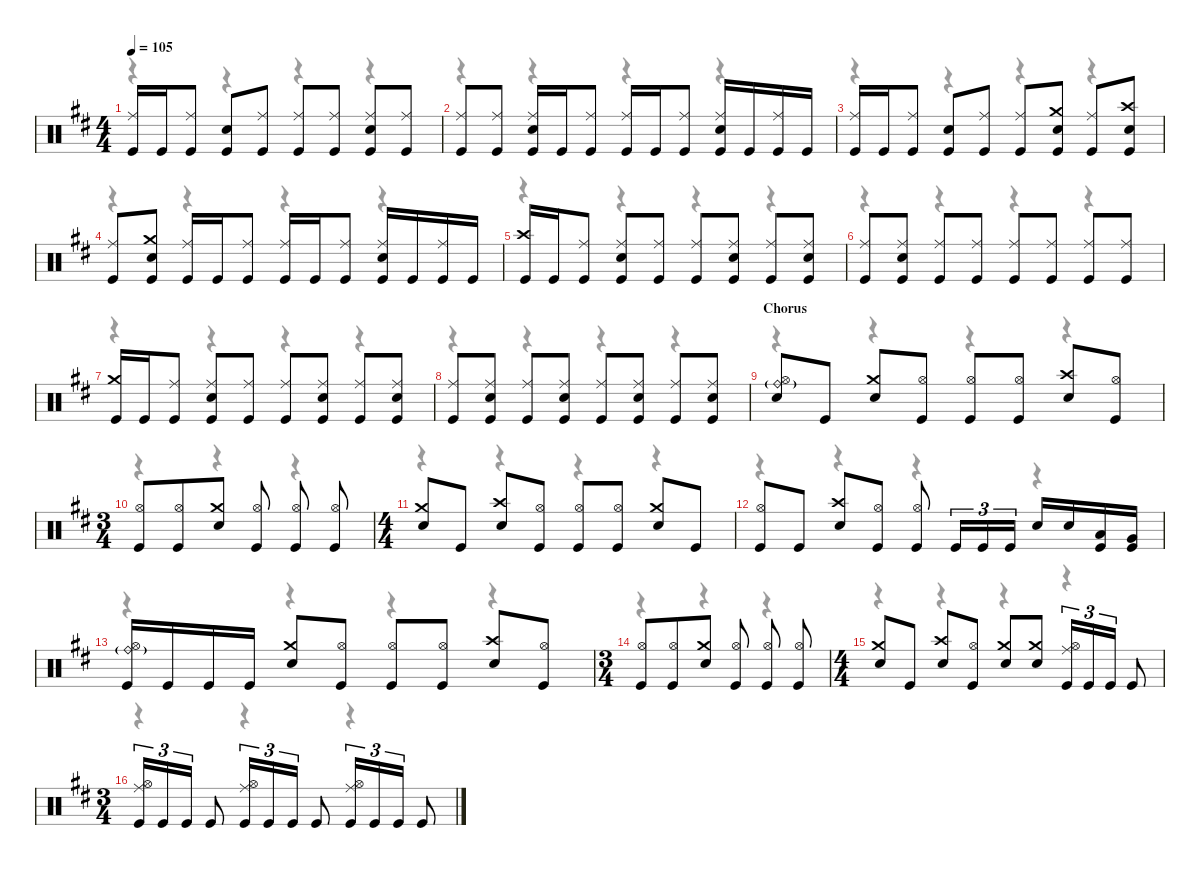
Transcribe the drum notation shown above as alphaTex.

\defaultSystemsLayout 4
\hideDynamics
\bracketExtendMode nobrackets
\singleTrackTrackNamePolicy hidden
\multiTrackTrackNamePolicy hidden
\firstSystemTrackNameMode fullname
\firstSystemTrackNameOrientation horizontal
\otherSystemsTrackNameOrientation horizontal
\track ("Drums" "drm.") {instrument percussion}
\staff {score}
\articulation defaults
\voice
\ts (4 4)
\tempo 105
\clef neutral
\ks bminor
("Kick (hit)"{acc forcenatural} "Ride (middle)"{acc forcenatural}).16{dy f beam Up} "Kick (hit)"{acc forcenatural}.16{beam Up} ("Kick (hit)"{acc forcenatural} "Ride (middle)"{acc forcenatural}).8{beam Up} ("Kick (hit)"{acc forcenatural} "Snare (hit) 2"{acc forcenatural}).8{beam Up} ("Kick (hit)"{acc forcenatural} "Ride (middle)"{acc forcenatural}).8{beam Up} ("Kick (hit)"{acc forcenatural} "Ride (middle)"{acc forcenatural}).8{beam Up} ("Kick (hit)"{acc forcenatural} "Ride (middle)"{acc forcenatural}).8{beam Up} ("Kick (hit)"{acc forcenatural} "Ride (middle)"{acc forcenatural} "Snare (hit) 2"{acc forcenatural}).8{beam Up} ("Kick (hit)"{acc forcenatural} "Ride (middle)"{acc forcenatural}).8{beam Up} |
("Ride (middle)"{acc forcenatural} "Kick (hit)"{acc forcenatural}).8{beam Up} ("Ride (middle)"{acc forcenatural} "Kick (hit)"{acc forcenatural}).8{beam Up} ("Ride (middle)"{acc forcenatural} "Snare (hit) 2"{acc forcenatural} "Kick (hit)"{acc forcenatural}).16{beam Up} "Kick (hit)"{acc forcenatural}.16{beam Up} ("Ride (middle)"{acc forcenatural} "Kick (hit)"{acc forcenatural}).8{beam Up} ("Ride (middle)"{acc forcenatural} "Kick (hit)"{acc forcenatural}).16{beam Up} "Kick (hit)"{acc forcenatural}.16{beam Up} ("Ride (middle)"{acc forcenatural} "Kick (hit)"{acc forcenatural}).8{beam Up} ("Snare (hit) 2"{acc forcenatural} "Kick (hit)"{acc forcenatural} "Ride (middle)"{acc forcenatural}).16{beam Up} "Kick (hit)"{acc forcenatural}.16{beam Up} ("Kick (hit)"{acc forcenatural} "Ride (middle)"{acc forcenatural}).16{beam Up} "Kick (hit)"{acc forcenatural}.16{beam Up} |
("Kick (hit)"{acc forcenatural} "Ride (middle)"{acc forcenatural}).16{beam Up} "Kick (hit)"{acc forcenatural}.16{beam Up} ("Kick (hit)"{acc forcenatural} "Ride (middle)"{acc forcenatural}).8{beam Up} ("Kick (hit)"{acc forcenatural} "Snare (hit) 2"{acc forcenatural}).8{beam Up} ("Kick (hit)"{acc forcenatural} "Ride (middle)"{acc forcenatural}).8{beam Up} ("Kick (hit)"{acc forcenatural} "Ride (middle)"{acc forcenatural}).8{beam Up} ("Kick (hit)"{acc forcenatural} "Snare (hit) 2"{acc forcenatural} "Crash medium (hit)"{acc forcenatural}).8{beam Up} ("Kick (hit)"{acc forcenatural} "Ride (middle)"{acc forcenatural}).8{beam Up} ("Kick (hit)"{acc forcenatural} "Snare (hit) 2"{acc forcenatural} "Crash high (hit)"{acc forcenatural}).8{beam Up} |
("Ride (middle)"{acc forcenatural} "Kick (hit)"{acc forcenatural}).8{beam Up} ("Kick (hit)"{acc forcenatural} "Snare (hit) 2"{acc forcenatural} "Crash medium (hit)"{acc forcenatural}).8{beam Up} ("Ride (middle)"{acc forcenatural} "Kick (hit)"{acc forcenatural}).16{beam Up} "Kick (hit)"{acc forcenatural}.16{beam Up} ("Ride (middle)"{acc forcenatural} "Kick (hit)"{acc forcenatural}).8{beam Up} ("Ride (middle)"{acc forcenatural} "Kick (hit)"{acc forcenatural}).16{beam Up} "Kick (hit)"{acc forcenatural}.16{beam Up} ("Ride (middle)"{acc forcenatural} "Kick (hit)"{acc forcenatural}).8{beam Up} ("Snare (hit) 2"{acc forcenatural} "Kick (hit)"{acc forcenatural} "Ride (middle)"{acc forcenatural}).16{beam Up} "Kick (hit)"{acc forcenatural}.16{beam Up} ("Kick (hit)"{acc forcenatural} "Ride (middle)"{acc forcenatural}).16{beam Up} "Kick (hit)"{acc forcenatural}.16{beam Up} |
("Kick (hit)"{acc forcenatural} "Crash high (hit)"{acc forcenatural}).16{beam Up} "Kick (hit)"{acc forcenatural}.16{beam Up} ("Kick (hit)"{acc forcenatural} "Ride (middle)"{acc forcenatural}).8{beam Up} ("Kick (hit)"{acc forcenatural} "Snare (hit) 2"{acc forcenatural} "Ride (middle)"{acc forcenatural}).8{beam Up} ("Kick (hit)"{acc forcenatural} "Ride (middle)"{acc forcenatural}).8{beam Up} ("Kick (hit)"{acc forcenatural} "Ride (middle)"{acc forcenatural}).8{beam Up} ("Kick (hit)"{acc forcenatural} "Snare (hit) 2"{acc forcenatural} "Ride (middle)"{acc forcenatural}).8{beam Up} ("Kick (hit)"{acc forcenatural} "Ride (middle)"{acc forcenatural}).8{beam Up} ("Kick (hit)"{acc forcenatural} "Snare (hit) 2"{acc forcenatural} "Ride (middle)"{acc forcenatural}).8{beam Up} |
("Kick (hit)"{acc forcenatural} "Ride (middle)"{acc forcenatural}).8{beam Up} ("Kick (hit)"{acc forcenatural} "Snare (hit) 2"{acc forcenatural} "Ride (middle)"{acc forcenatural}).8{beam Up} ("Kick (hit)"{acc forcenatural} "Ride (middle)"{acc forcenatural}).8{beam Up} ("Kick (hit)"{acc forcenatural} "Ride (middle)"{acc forcenatural}).8{beam Up} ("Kick (hit)"{acc forcenatural} "Ride (middle)"{acc forcenatural}).8{beam Up} ("Kick (hit)"{acc forcenatural} "Ride (middle)"{acc forcenatural}).8{beam Up} ("Kick (hit)"{acc forcenatural} "Ride (middle)"{acc forcenatural}).8{beam Up} ("Kick (hit)"{acc forcenatural} "Ride (middle)"{acc forcenatural}).8{beam Up} |
("Kick (hit)"{acc forcenatural} "Crash medium (hit)"{acc forcenatural}).16{beam Up} "Kick (hit)"{acc forcenatural}.16{beam Up} ("Kick (hit)"{acc forcenatural} "Ride (middle)"{acc forcenatural}).8{beam Up} ("Kick (hit)"{acc forcenatural} "Snare (hit) 2"{acc forcenatural} "Ride (middle)"{acc forcenatural}).8{beam Up} ("Kick (hit)"{acc forcenatural} "Ride (middle)"{acc forcenatural}).8{beam Up} ("Kick (hit)"{acc forcenatural} "Ride (middle)"{acc forcenatural}).8{beam Up} ("Kick (hit)"{acc forcenatural} "Snare (hit) 2"{acc forcenatural} "Ride (middle)"{acc forcenatural}).8{beam Up} ("Kick (hit)"{acc forcenatural} "Ride (middle)"{acc forcenatural}).8{beam Up} ("Kick (hit)"{acc forcenatural} "Snare (hit) 2"{acc forcenatural} "Ride (middle)"{acc forcenatural}).8{beam Up} |
("Kick (hit)"{acc forcenatural} "Ride (middle)"{acc forcenatural}).8{beam Up} ("Kick (hit)"{acc forcenatural} "Snare (hit) 2"{acc forcenatural} "Ride (middle)"{acc forcenatural}).8{beam Up} ("Kick (hit)"{acc forcenatural} "Ride (middle)"{acc forcenatural}).8{beam Up} ("Kick (hit)"{acc forcenatural} "Ride (middle)"{acc forcenatural} "Snare (hit) 2"{acc forcenatural}).8{beam Up} ("Kick (hit)"{acc forcenatural} "Ride (middle)"{acc forcenatural}).8{beam Up} ("Kick (hit)"{acc forcenatural} "Ride (middle)"{acc forcenatural} "Snare (hit) 2"{acc forcenatural}).8{beam Up} ("Kick (hit)"{acc forcenatural} "Ride (middle)"{acc forcenatural}).8{beam Up} ("Kick (hit)"{acc forcenatural} "Ride (middle)"{acc forcenatural} "Snare (hit) 2"{acc forcenatural}).8{beam Up} |
\section ("" "Chorus")
("Ride (bell)"{g acc forcenatural} "Hi-Hat (open)"{acc forcenatural} "Snare (hit) 2"{acc forcenatural}).8{dy mp beam Up} "Kick (hit)"{acc forcenatural}.8{dy f beam Up} ("Crash medium (hit)"{acc forcenatural} "Snare (hit) 2"{acc forcenatural}).8{dy mp beam Up} ("Hi-Hat (open)"{acc forcenatural} "Kick (hit)"{acc forcenatural}).8{dy pp beam Up} ("Hi-Hat (open)"{acc forcenatural} "Kick (hit)"{acc forcenatural}).8{dy mp beam Up} ("Hi-Hat (open)"{acc forcenatural} "Kick (hit)"{acc forcenatural}).8{dy pp beam Up} ("Crash high (hit)"{acc forcenatural} "Snare (hit) 2"{acc forcenatural}).8{dy mp beam Up} ("Hi-Hat (open)"{acc forcenatural} "Kick (hit)"{acc forcenatural}).8{dy pp beam Up} |
\ts (3 4)
\beaming (8 3 1 1 1)
("Hi-Hat (open)"{acc forcenatural} "Kick (hit)"{acc forcenatural}).8{dy mp beam Up} ("Hi-Hat (open)"{acc forcenatural} "Kick (hit)"{acc forcenatural}).8{dy pp beam Up} ("Crash medium (hit)"{acc forcenatural} "Snare (hit) 2"{acc forcenatural}).8{dy mp beam Up} ("Hi-Hat (open)"{acc forcenatural} "Kick (hit)"{acc forcenatural}).8{dy pp beam Up} ("Hi-Hat (open)"{acc forcenatural} "Kick (hit)"{acc forcenatural}).8{dy mp beam Up} ("Hi-Hat (open)"{acc forcenatural} "Kick (hit)"{acc forcenatural}).8{dy pp beam Up} |
\ts (4 4)
\beaming (8 2 2 2 2)
("Crash medium (hit)"{acc forcenatural} "Snare (hit) 2"{acc forcenatural}).8{dy mp beam Up} "Kick (hit)"{acc forcenatural}.8{dy f beam Up} ("Crash high (hit)"{acc forcenatural} "Snare (hit) 2"{acc forcenatural}).8{dy mp beam Up} ("Hi-Hat (open)"{acc forcenatural} "Kick (hit)"{acc forcenatural}).8{dy pp beam Up} ("Hi-Hat (open)"{acc forcenatural} "Kick (hit)"{acc forcenatural}).8{dy mp beam Up} ("Hi-Hat (open)"{acc forcenatural} "Kick (hit)"{acc forcenatural}).8{dy pp beam Up} ("Crash medium (hit)"{acc forcenatural} "Snare (hit) 2"{acc forcenatural}).8{dy mp beam Up} "Kick (hit)"{acc forcenatural}.8{dy f beam Up} |
("Hi-Hat (open)"{acc forcenatural} "Kick (hit)"{acc forcenatural}).8{dy mp beam Up} "Kick (hit)"{acc forcenatural}.8{dy f beam Up} ("Crash high (hit)"{acc forcenatural} "Snare (hit) 2"{acc forcenatural}).8{dy mp beam Up} ("Hi-Hat (open)"{acc forcenatural} "Kick (hit)"{acc forcenatural}).8{dy pp beam Up} ("Hi-Hat (open)"{acc forcenatural} "Kick (hit)"{acc forcenatural}).8{dy mp beam Up} "Kick (hit)"{acc forcenatural}.16{tu (3 2) dy f beam Up} "Kick (hit)"{acc forcenatural}.16{tu (3 2) beam Up} "Kick (hit)"{acc forcenatural}.16{tu (3 2) beam Up} "Snare (hit) 2"{acc forcenatural}.16{beam Up} "Snare (hit) 2"{acc forcenatural}.16{beam Up} ("Low Tom (hit)"{acc forcenatural} "Kick (hit)"{acc forcenatural}).16{dy mp beam Up} ("Very Low Tom (hit)"{acc forcenatural} "Kick (hit)"{acc forcenatural}).16{beam Up} |
("Ride (bell)"{g acc forcenatural} "Hi-Hat (open)"{acc forcenatural} "Kick (hit)"{acc forcenatural}).16{beam Up} "Kick (hit)"{acc forcenatural}.16{dy f beam Up} "Kick (hit)"{acc forcenatural}.16{beam Up} "Kick (hit)"{acc forcenatural}.16{beam Up} ("Crash medium (hit)"{acc forcenatural} "Snare (hit) 2"{acc forcenatural}).8{dy mp beam Up} ("Hi-Hat (open)"{acc forcenatural} "Kick (hit)"{acc forcenatural}).8{dy pp beam Up} ("Hi-Hat (open)"{acc forcenatural} "Kick (hit)"{acc forcenatural}).8{dy mp beam Up} ("Hi-Hat (open)"{acc forcenatural} "Kick (hit)"{acc forcenatural}).8{dy pp beam Up} ("Crash high (hit)"{acc forcenatural} "Snare (hit) 2"{acc forcenatural}).8{dy mp beam Up} ("Hi-Hat (open)"{acc forcenatural} "Kick (hit)"{acc forcenatural}).8{dy pp beam Up} |
\ts (3 4)
\beaming (8 3 1 1 1)
("Hi-Hat (open)"{acc forcenatural} "Kick (hit)"{acc forcenatural}).8{dy mp beam Up} ("Hi-Hat (open)"{acc forcenatural} "Kick (hit)"{acc forcenatural}).8{dy pp beam Up} ("Crash medium (hit)"{acc forcenatural} "Snare (hit) 2"{acc forcenatural}).8{dy mp beam Up} ("Hi-Hat (open)"{acc forcenatural} "Kick (hit)"{acc forcenatural}).8{dy pp beam Up} ("Hi-Hat (open)"{acc forcenatural} "Kick (hit)"{acc forcenatural}).8{dy mp beam Up} ("Hi-Hat (open)"{acc forcenatural} "Kick (hit)"{acc forcenatural}).8{dy pp beam Up} |
\ts (4 4)
\beaming (8 2 2 2 2)
("Crash medium (hit)"{acc forcenatural} "Snare (hit) 2"{acc forcenatural}).8{dy mp beam Up} "Kick (hit)"{acc forcenatural}.8{dy f beam Up} ("Crash high (hit)"{acc forcenatural} "Snare (hit) 2"{acc forcenatural}).8{dy mp beam Up} ("Hi-Hat (open)"{acc forcenatural} "Kick (hit)"{acc forcenatural}).8{dy pp beam Up} ("Crash medium (hit)"{acc forcenatural} "Snare (hit) 2"{acc forcenatural}).8{dy mp beam Up} ("Crash medium (hit)"{acc forcenatural} "Snare (hit) 2"{acc forcenatural}).8{beam Up} ("Ride (middle)"{acc forcenatural} "Hi-Hat (open)"{acc forcenatural} "Kick (hit)"{acc forcenatural}).16{tu (3 2) dy mf beam Up} "Kick (hit)"{acc forcenatural}.16{tu (3 2) dy f beam Up} "Kick (hit)"{acc forcenatural}.16{tu (3 2) beam Up} "Kick (hit)"{acc forcenatural}.8{beam Up} |
\ts (3 4)
\beaming (8 3 1 1 1)
("Ride (middle)"{acc forcenatural} "Hi-Hat (open)"{acc forcenatural} "Kick (hit)"{acc forcenatural}).16{tu (3 2) dy mf beam Up} "Kick (hit)"{acc forcenatural}.16{tu (3 2) dy f beam Up} "Kick (hit)"{acc forcenatural}.16{tu (3 2) beam Up} "Kick (hit)"{acc forcenatural}.8{beam Up} ("Ride (middle)"{acc forcenatural} "Hi-Hat (open)"{acc forcenatural} "Kick (hit)"{acc forcenatural}).16{tu (3 2) dy mf beam Up} "Kick (hit)"{acc forcenatural}.16{tu (3 2) dy f beam Up} "Kick (hit)"{acc forcenatural}.16{tu (3 2) beam Up} "Kick (hit)"{acc forcenatural}.8{beam Up} ("Ride (middle)"{acc forcenatural} "Hi-Hat (open)"{acc forcenatural} "Kick (hit)"{acc forcenatural}).16{tu (3 2) dy mf beam Up} "Kick (hit)"{acc forcenatural}.16{tu (3 2) dy f beam Up} "Kick (hit)"{acc forcenatural}.16{tu (3 2) beam Up} "Kick (hit)"{acc forcenatural}.8{beam Up}
\voice
\clef neutral
\ottava regular
\simile none
\ks bminor
r.4{dy mf beam Down} r.4{beam Down} r.4{beam Down} r.4{beam Down} |
r.4{beam Down} r.4{beam Down} r.4{beam Down} r.4{beam Down} |
r.4{beam Down} r.4{beam Down} r.4{beam Down} r.4{beam Down} |
r.4{beam Down} r.4{beam Down} r.4{beam Down} r.4{beam Down} |
r.4{beam Down} r.4{beam Down} r.4{beam Down} r.4{beam Down} |
r.4{beam Down} r.4{beam Down} r.4{beam Down} r.4{beam Down} |
r.4{beam Down} r.4{beam Down} r.4{beam Down} r.4{beam Down} |
r.4{beam Down} r.4{beam Down} r.4{beam Down} r.4{beam Down} |
r.4{beam Down} r.4{beam Down} r.4{beam Down} r.4{beam Down} |
r.4{beam Down} r.4{beam Down} r.4{beam Down} |
r.4{beam Down} r.4{beam Down} r.4{beam Down} r.4{beam Down} |
r.4{beam Down} r.4{beam Down} r.4{beam Down} r.4{beam Down} |
r.4{beam Down} r.4{beam Down} r.4{beam Down} r.4{beam Down} |
r.4{beam Down} r.4{beam Down} r.4{beam Down} |
r.4{beam Down} r.4{beam Down} r.4{beam Down} r.4{beam Down} |
r.4{beam Down} r.4{beam Down} r.4{beam Down}
